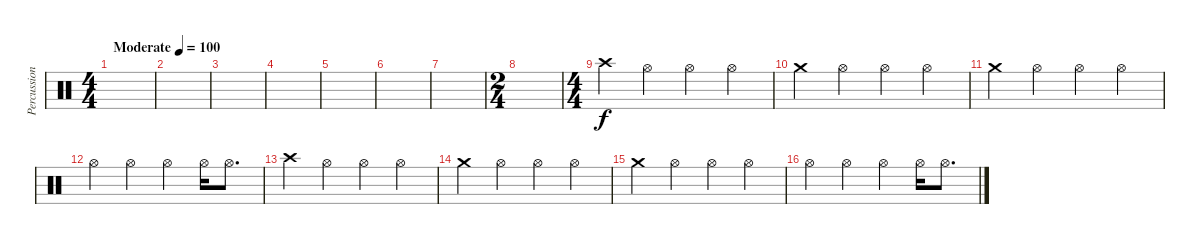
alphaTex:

\track ("Percussion" "Percussion") {instrument percussion}
\staff {score}
\articulation defaults
\ts (4 4)
\tempo (100 "Moderate")
\clef neutral
\ks c
|
|
|
|
|
|
|
\ts (2 4)
|
\ts (4 4)
"Crash high (hit)".4 "Hi-Hat (open)".4 "Hi-Hat (open)".4 "Hi-Hat (open)".4 |
"Crash medium (hit)".4 "Hi-Hat (open)".4 "Hi-Hat (open)".4 "Hi-Hat (open)".4 |
"Crash medium (hit)".4 "Hi-Hat (open)".4 "Hi-Hat (open)".4 "Hi-Hat (open)".4 |
"Hi-Hat (open)".4 "Hi-Hat (open)".4 "Hi-Hat (open)".4 "Hi-Hat (open)".16 "Hi-Hat (open)".8{d} |
"Crash high (hit)".4 "Hi-Hat (open)".4 "Hi-Hat (open)".4 "Hi-Hat (open)".4 |
"Crash medium (hit)".4 "Hi-Hat (open)".4 "Hi-Hat (open)".4 "Hi-Hat (open)".4 |
"Crash medium (hit)".4 "Hi-Hat (open)".4 "Hi-Hat (open)".4 "Hi-Hat (open)".4 |
"Hi-Hat (open)".4 "Hi-Hat (open)".4 "Hi-Hat (open)".4 "Hi-Hat (open)".16 "Hi-Hat (open)".8{d}
